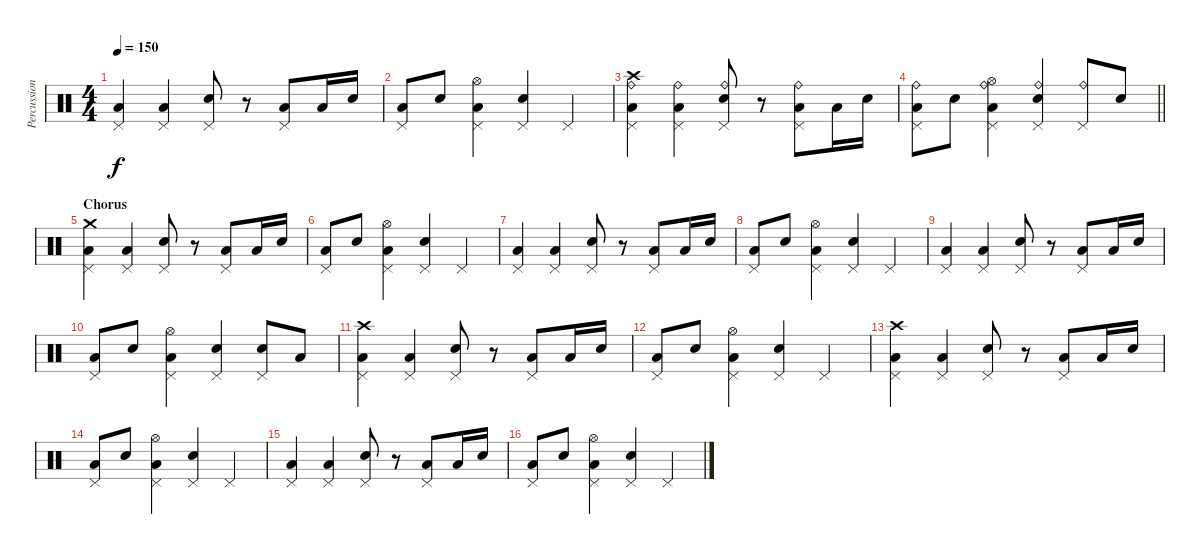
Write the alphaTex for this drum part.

\track ("Percussions" "Percussion") {instrument percussion}
\staff {score}
\articulation defaults
\ts (4 4)
\tempo 150
\clef neutral
\ks c
("Low Floor Tom (hit)" "Pedal Hi-Hat (hit)").4{dy f} ("Low Floor Tom (hit)" "Pedal Hi-Hat (hit)").4 ("Pedal Hi-Hat (hit)" "Electric Snare (hit)").8 r.8 ("Pedal Hi-Hat (hit)" "Low Floor Tom (hit)").8 "Low Floor Tom (hit)".16 "Electric Snare (hit)".16 |
("Low Floor Tom (hit)" "Pedal Hi-Hat (hit)").8 "Electric Snare (hit)".8 ("Low Floor Tom (hit)" "Pedal Hi-Hat (hit)" "Hi-Hat (open)").4 ("Electric Snare (hit)" "Pedal Hi-Hat (hit)").4 "Pedal Hi-Hat (hit)".4 |
("Low Floor Tom (hit)" "Pedal Hi-Hat (hit)" "Crash high (hit)" "Ride (bell)").4 ("Low Floor Tom (hit)" "Pedal Hi-Hat (hit)" "Ride (bell)").4 ("Pedal Hi-Hat (hit)" "Ride (bell)" "Electric Snare (hit)").8 r.8 ("Ride (bell)" "Pedal Hi-Hat (hit)" "Low Floor Tom (hit)").8 "Low Floor Tom (hit)".16 "Electric Snare (hit)".16 |
\barLineRight lightlight
("Low Floor Tom (hit)" "Pedal Hi-Hat (hit)" "Ride (bell)").8 "Electric Snare (hit)".8 ("Low Floor Tom (hit)" "Pedal Hi-Hat (hit)" "Hi-Hat (open)" "Ride (bell)").4 ("Electric Snare (hit)" "Pedal Hi-Hat (hit)" "Ride (bell)").4 ("Pedal Hi-Hat (hit)" "Ride (bell)").8 "Electric Snare (hit)".8 |
\section ("" "Chorus")
("Low Floor Tom (hit)" "Pedal Hi-Hat (hit)" "Crash medium (hit)").4 ("Low Floor Tom (hit)" "Pedal Hi-Hat (hit)").4 ("Pedal Hi-Hat (hit)" "Electric Snare (hit)").8 r.8 ("Pedal Hi-Hat (hit)" "Low Floor Tom (hit)").8 "Low Floor Tom (hit)".16 "Electric Snare (hit)".16 |
("Low Floor Tom (hit)" "Pedal Hi-Hat (hit)").8 "Electric Snare (hit)".8 ("Low Floor Tom (hit)" "Pedal Hi-Hat (hit)" "Hi-Hat (open)").4 ("Electric Snare (hit)" "Pedal Hi-Hat (hit)").4 "Pedal Hi-Hat (hit)".4 |
("Low Floor Tom (hit)" "Pedal Hi-Hat (hit)").4 ("Low Floor Tom (hit)" "Pedal Hi-Hat (hit)").4 ("Pedal Hi-Hat (hit)" "Electric Snare (hit)").8 r.8 ("Pedal Hi-Hat (hit)" "Low Floor Tom (hit)").8 "Low Floor Tom (hit)".16 "Electric Snare (hit)".16 |
("Low Floor Tom (hit)" "Pedal Hi-Hat (hit)").8 "Electric Snare (hit)".8 ("Low Floor Tom (hit)" "Pedal Hi-Hat (hit)" "Hi-Hat (open)").4 ("Electric Snare (hit)" "Pedal Hi-Hat (hit)").4 "Pedal Hi-Hat (hit)".4 |
("Low Floor Tom (hit)" "Pedal Hi-Hat (hit)").4 ("Low Floor Tom (hit)" "Pedal Hi-Hat (hit)").4 ("Pedal Hi-Hat (hit)" "Electric Snare (hit)").8 r.8 ("Pedal Hi-Hat (hit)" "Low Floor Tom (hit)").8 "Low Floor Tom (hit)".16 "Electric Snare (hit)".16 |
("Low Floor Tom (hit)" "Pedal Hi-Hat (hit)").8 "Electric Snare (hit)".8 ("Low Floor Tom (hit)" "Pedal Hi-Hat (hit)" "Hi-Hat (open)").4 ("Electric Snare (hit)" "Pedal Hi-Hat (hit)").4 ("Pedal Hi-Hat (hit)" "Electric Snare (hit)").8 "Low Floor Tom (hit)".8 |
("Low Floor Tom (hit)" "Pedal Hi-Hat (hit)" "Crash high (hit)").4 ("Low Floor Tom (hit)" "Pedal Hi-Hat (hit)").4 ("Pedal Hi-Hat (hit)" "Electric Snare (hit)").8 r.8 ("Pedal Hi-Hat (hit)" "Low Floor Tom (hit)").8 "Low Floor Tom (hit)".16 "Electric Snare (hit)".16 |
("Low Floor Tom (hit)" "Pedal Hi-Hat (hit)").8 "Electric Snare (hit)".8 ("Low Floor Tom (hit)" "Pedal Hi-Hat (hit)" "Hi-Hat (open)").4 ("Electric Snare (hit)" "Pedal Hi-Hat (hit)").4 "Pedal Hi-Hat (hit)".4 |
("Low Floor Tom (hit)" "Pedal Hi-Hat (hit)" "Crash high (hit)").4 ("Low Floor Tom (hit)" "Pedal Hi-Hat (hit)").4 ("Pedal Hi-Hat (hit)" "Electric Snare (hit)").8 r.8 ("Pedal Hi-Hat (hit)" "Low Floor Tom (hit)").8 "Low Floor Tom (hit)".16 "Electric Snare (hit)".16 |
("Low Floor Tom (hit)" "Pedal Hi-Hat (hit)").8 "Electric Snare (hit)".8 ("Low Floor Tom (hit)" "Pedal Hi-Hat (hit)" "Hi-Hat (open)").4 ("Electric Snare (hit)" "Pedal Hi-Hat (hit)").4 "Pedal Hi-Hat (hit)".4 |
("Low Floor Tom (hit)" "Pedal Hi-Hat (hit)").4 ("Low Floor Tom (hit)" "Pedal Hi-Hat (hit)").4 ("Pedal Hi-Hat (hit)" "Electric Snare (hit)").8 r.8 ("Pedal Hi-Hat (hit)" "Low Floor Tom (hit)").8 "Low Floor Tom (hit)".16 "Electric Snare (hit)".16 |
("Low Floor Tom (hit)" "Pedal Hi-Hat (hit)").8 "Electric Snare (hit)".8 ("Low Floor Tom (hit)" "Pedal Hi-Hat (hit)" "Hi-Hat (open)").4 ("Electric Snare (hit)" "Pedal Hi-Hat (hit)").4 "Pedal Hi-Hat (hit)".4
